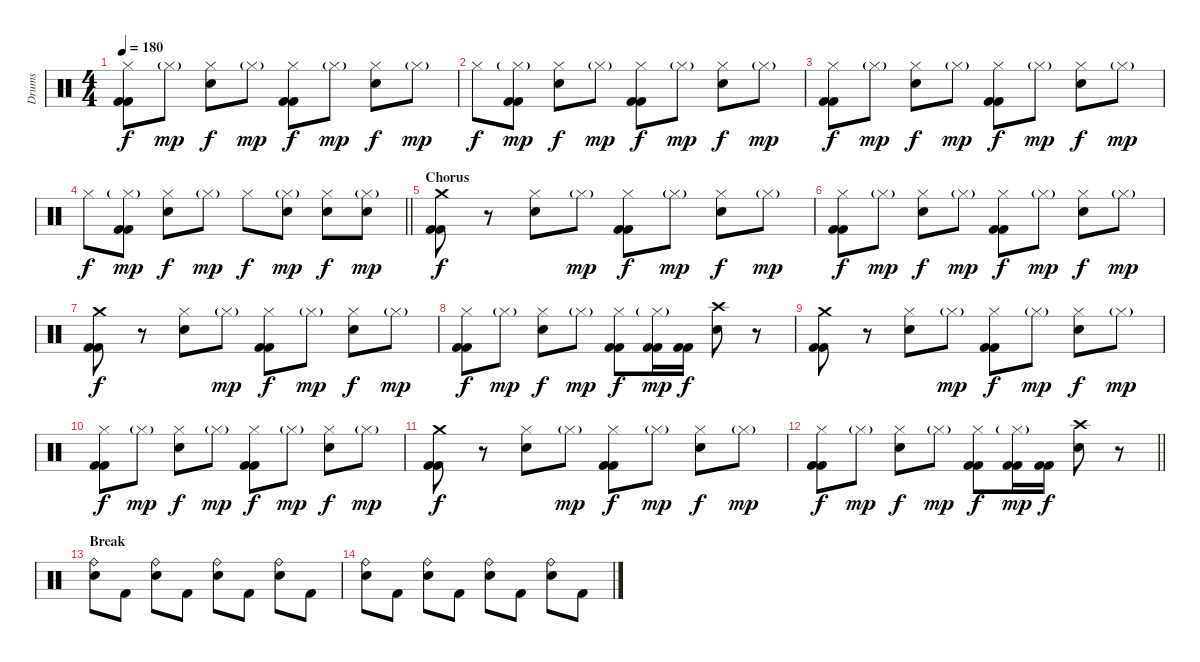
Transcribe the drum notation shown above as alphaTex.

\track ("Drums" "Drums") {instrument percussion}
\staff {score}
\articulation defaults
\ts (4 4)
\tempo 180
\clef neutral
\ks c
("Hi-Hat (closed)" "Kick (hit) 2" "Kick (hit) 2").8{dy f} "Hi-Hat (closed)"{g}.8{dy mp} ("Hi-Hat (closed)" "Snare (hit) 2").8{dy f} "Hi-Hat (closed)"{g}.8{dy mp} ("Hi-Hat (closed)" "Kick (hit) 2" "Kick (hit) 2").8{dy f} "Hi-Hat (closed)"{g}.8{dy mp} ("Hi-Hat (closed)" "Snare (hit) 2").8{dy f} "Hi-Hat (closed)"{g}.8{dy mp} |
"Hi-Hat (closed)".8{dy f} ("Hi-Hat (closed)"{g} "Kick (hit) 2" "Kick (hit) 2").8{dy mp} ("Hi-Hat (closed)" "Snare (hit) 2").8{dy f} "Hi-Hat (closed)"{g}.8{dy mp} ("Hi-Hat (closed)" "Kick (hit) 2" "Kick (hit) 2").8{dy f} "Hi-Hat (closed)"{g}.8{dy mp} ("Hi-Hat (closed)" "Snare (hit) 2").8{dy f} "Hi-Hat (closed)"{g}.8{dy mp} |
("Hi-Hat (closed)" "Kick (hit) 2" "Kick (hit) 2").8{dy f} "Hi-Hat (closed)"{g}.8{dy mp} ("Hi-Hat (closed)" "Snare (hit) 2").8{dy f} "Hi-Hat (closed)"{g}.8{dy mp} ("Hi-Hat (closed)" "Kick (hit) 2" "Kick (hit) 2").8{dy f} "Hi-Hat (closed)"{g}.8{dy mp} ("Hi-Hat (closed)" "Snare (hit) 2").8{dy f} "Hi-Hat (closed)"{g}.8{dy mp} |
\barLineRight lightlight "Hi-Hat (closed)".8{dy f}
("Hi-Hat (closed)"{g} "Kick (hit) 2" "Kick (hit) 2").8{dy mp} ("Hi-Hat (closed)" "Snare (hit) 2").8{dy f} "Hi-Hat (closed)"{g}.8{dy mp} "Hi-Hat (closed)".8{dy f} ("Hi-Hat (closed)"{g} "Snare (hit) 2").8{dy mp} ("Hi-Hat (closed)" "Snare (hit) 2").8{dy f} ("Hi-Hat (closed)"{g} "Snare (hit) 2").8{dy mp} |
\section ("" "Chorus")
("Crash medium (hit)" "Kick (hit) 2" "Kick (hit) 2").8{dy f} r.8 ("Hi-Hat (closed)" "Snare (hit) 2").8 "Hi-Hat (closed)"{g}.8{dy mp} ("Hi-Hat (closed)" "Kick (hit) 2" "Kick (hit) 2").8{dy f} "Hi-Hat (closed)"{g}.8{dy mp} ("Hi-Hat (closed)" "Snare (hit) 2").8{dy f} "Hi-Hat (closed)"{g}.8{dy mp} |
("Hi-Hat (closed)" "Kick (hit) 2" "Kick (hit) 2").8{dy f} "Hi-Hat (closed)"{g}.8{dy mp} ("Hi-Hat (closed)" "Snare (hit) 2").8{dy f} "Hi-Hat (closed)"{g}.8{dy mp} ("Hi-Hat (closed)" "Kick (hit) 2" "Kick (hit) 2").8{dy f} "Hi-Hat (closed)"{g}.8{dy mp} ("Hi-Hat (closed)" "Snare (hit) 2").8{dy f} "Hi-Hat (closed)"{g}.8{dy mp} |
("Crash medium (hit)" "Kick (hit) 2" "Kick (hit) 2").8{dy f} r.8 ("Hi-Hat (closed)" "Snare (hit) 2").8 "Hi-Hat (closed)"{g}.8{dy mp} ("Hi-Hat (closed)" "Kick (hit) 2" "Kick (hit) 2").8{dy f} "Hi-Hat (closed)"{g}.8{dy mp} ("Hi-Hat (closed)" "Snare (hit) 2").8{dy f} "Hi-Hat (closed)"{g}.8{dy mp} |
("Hi-Hat (closed)" "Kick (hit) 2" "Kick (hit) 2").8{dy f} "Hi-Hat (closed)"{g}.8{dy mp} ("Hi-Hat (closed)" "Snare (hit) 2").8{dy f} "Hi-Hat (closed)"{g}.8{dy mp} ("Hi-Hat (closed)" "Kick (hit) 2" "Kick (hit) 2").8{dy f} ("Hi-Hat (closed)"{g} "Kick (hit) 2" "Kick (hit) 2").16{dy mp} ("Kick (hit) 2" "Kick (hit) 2").16{dy f} ("Crash high (hit)" "Snare (hit) 2").8 r.8 |
("Crash medium (hit)" "Kick (hit) 2" "Kick (hit) 2").8 r.8 ("Hi-Hat (closed)" "Snare (hit) 2").8 "Hi-Hat (closed)"{g}.8{dy mp} ("Hi-Hat (closed)" "Kick (hit) 2" "Kick (hit) 2").8{dy f} "Hi-Hat (closed)"{g}.8{dy mp} ("Hi-Hat (closed)" "Snare (hit) 2").8{dy f} "Hi-Hat (closed)"{g}.8{dy mp} |
("Hi-Hat (closed)" "Kick (hit) 2" "Kick (hit) 2").8{dy f} "Hi-Hat (closed)"{g}.8{dy mp} ("Hi-Hat (closed)" "Snare (hit) 2").8{dy f} "Hi-Hat (closed)"{g}.8{dy mp} ("Hi-Hat (closed)" "Kick (hit) 2" "Kick (hit) 2").8{dy f} "Hi-Hat (closed)"{g}.8{dy mp} ("Hi-Hat (closed)" "Snare (hit) 2").8{dy f} "Hi-Hat (closed)"{g}.8{dy mp} |
("Crash medium (hit)" "Kick (hit) 2" "Kick (hit) 2").8{dy f} r.8 ("Hi-Hat (closed)" "Snare (hit) 2").8 "Hi-Hat (closed)"{g}.8{dy mp} ("Hi-Hat (closed)" "Kick (hit) 2" "Kick (hit) 2").8{dy f} "Hi-Hat (closed)"{g}.8{dy mp} ("Hi-Hat (closed)" "Snare (hit) 2").8{dy f} "Hi-Hat (closed)"{g}.8{dy mp} |
\barLineRight lightlight
("Hi-Hat (closed)" "Kick (hit) 2" "Kick (hit) 2").8{dy f} "Hi-Hat (closed)"{g}.8{dy mp} ("Hi-Hat (closed)" "Snare (hit) 2").8{dy f} "Hi-Hat (closed)"{g}.8{dy mp} ("Hi-Hat (closed)" "Kick (hit) 2" "Kick (hit) 2").8{dy f} ("Hi-Hat (closed)"{g} "Kick (hit) 2" "Kick (hit) 2").16{dy mp} ("Kick (hit) 2" "Kick (hit) 2").16{dy f} ("Crash high (hit)" "Snare (hit) 2").8 r.8 |
\section ("" "Break")
("Ride (bell)" "Snare (hit) 2").8 "Kick (hit) 2".8 ("Ride (bell)" "Snare (hit) 2").8 "Kick (hit) 2".8 ("Ride (bell)" "Snare (hit) 2").8 "Kick (hit) 2".8 ("Ride (bell)" "Snare (hit) 2").8 "Kick (hit) 2".8 |
("Ride (bell)" "Snare (hit) 2").8 "Kick (hit) 2".8 ("Ride (bell)" "Snare (hit) 2").8 "Kick (hit) 2".8 ("Ride (bell)" "Snare (hit) 2").8 "Kick (hit) 2".8 ("Ride (bell)" "Snare (hit) 2").8 "Kick (hit) 2".8
